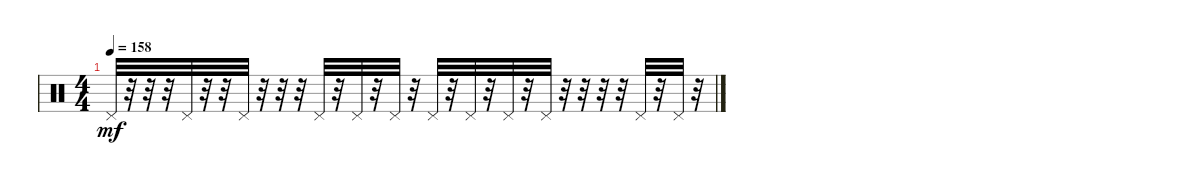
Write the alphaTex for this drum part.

\track ("   " "   ") {instrument percussion}
\staff
\articulation defaults
\ts (4 4)
\tempo 158
\clef neutral
\ks c "Pedal Hi-Hat (hit)".32{dy mf}
r.32 r.32 r.32 "Pedal Hi-Hat (hit)".32 r.32 r.32 "Pedal Hi-Hat (hit)".32 r.32 r.32 r.32 "Pedal Hi-Hat (hit)".32 r.32 "Pedal Hi-Hat (hit)".32 r.32 "Pedal Hi-Hat (hit)".32 r.32 "Pedal Hi-Hat (hit)".32 r.32 "Pedal Hi-Hat (hit)".32 r.32 "Pedal Hi-Hat (hit)".32 r.32 "Pedal Hi-Hat (hit)".32 r.32 r.32 r.32 r.32 "Pedal Hi-Hat (hit)".32 r.32 "Pedal Hi-Hat (hit)".32 r.32
